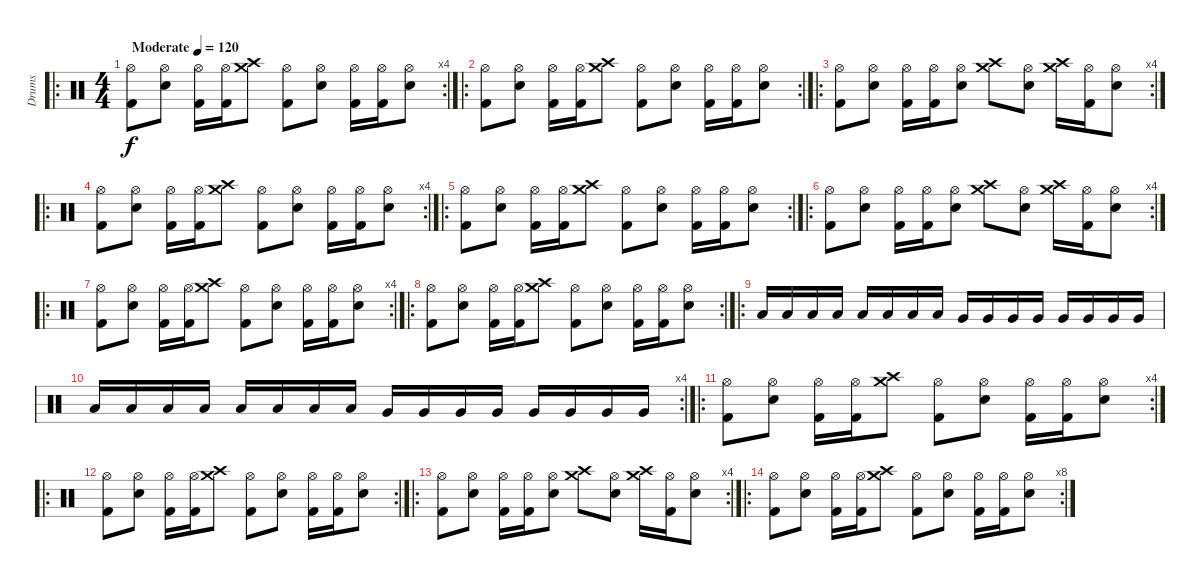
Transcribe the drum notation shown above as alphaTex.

\track ("Drums" "Drums") {instrument percussion}
\staff {score}
\articulation defaults
\ro
\rc 4
\ts (4 4)
\tempo (120 "Moderate")
\clef neutral
\ks c
("Hi-Hat (open)" "Kick (hit) 2").8{dy f} ("Hi-Hat (open)" "Snare (hit) 2").8 ("Hi-Hat (open)" "Kick (hit) 2").16 ("Hi-Hat (open)" "Kick (hit) 2").16 ("Crash medium (hit)" "Crash high (hit)").8 ("Hi-Hat (open)" "Kick (hit) 2").8 ("Hi-Hat (open)" "Snare (hit) 2").8 ("Hi-Hat (open)" "Kick (hit) 2").16 ("Hi-Hat (open)" "Kick (hit) 2").16 ("Hi-Hat (open)" "Snare (hit) 2").8 |
\ro
\rc 2
("Hi-Hat (open)" "Kick (hit) 2").8 ("Hi-Hat (open)" "Snare (hit) 2").8 ("Hi-Hat (open)" "Kick (hit) 2").16 ("Hi-Hat (open)" "Kick (hit) 2").16 ("Crash medium (hit)" "Crash high (hit)").8 ("Hi-Hat (open)" "Kick (hit) 2").8 ("Hi-Hat (open)" "Snare (hit) 2").8 ("Hi-Hat (open)" "Kick (hit) 2").16 ("Hi-Hat (open)" "Kick (hit) 2").16 ("Hi-Hat (open)" "Snare (hit) 2").8 |
\ro
\rc 4
("Hi-Hat (open)" "Kick (hit) 2").8 ("Hi-Hat (open)" "Snare (hit) 2").8 ("Hi-Hat (open)" "Kick (hit) 2").16 ("Hi-Hat (open)" "Kick (hit) 2").16 ("Hi-Hat (open)" "Snare (hit) 2").8 ("Crash medium (hit)" "Crash high (hit)").8 ("Hi-Hat (open)" "Snare (hit) 2").8 ("Crash medium (hit)" "Crash high (hit)").16 ("Hi-Hat (open)" "Kick (hit) 2").16 ("Hi-Hat (open)" "Snare (hit) 2").8 |
\ro
\rc 4
("Hi-Hat (open)" "Kick (hit) 2").8 ("Hi-Hat (open)" "Snare (hit) 2").8 ("Hi-Hat (open)" "Kick (hit) 2").16 ("Hi-Hat (open)" "Kick (hit) 2").16 ("Crash medium (hit)" "Crash high (hit)").8 ("Hi-Hat (open)" "Kick (hit) 2").8 ("Hi-Hat (open)" "Snare (hit) 2").8 ("Hi-Hat (open)" "Kick (hit) 2").16 ("Hi-Hat (open)" "Kick (hit) 2").16 ("Hi-Hat (open)" "Snare (hit) 2").8 |
\ro
\rc 2
("Hi-Hat (open)" "Kick (hit) 2").8 ("Hi-Hat (open)" "Snare (hit) 2").8 ("Hi-Hat (open)" "Kick (hit) 2").16 ("Hi-Hat (open)" "Kick (hit) 2").16 ("Crash medium (hit)" "Crash high (hit)").8 ("Hi-Hat (open)" "Kick (hit) 2").8 ("Hi-Hat (open)" "Snare (hit) 2").8 ("Hi-Hat (open)" "Kick (hit) 2").16 ("Hi-Hat (open)" "Kick (hit) 2").16 ("Hi-Hat (open)" "Snare (hit) 2").8 |
\ro
\rc 4
("Hi-Hat (open)" "Kick (hit) 2").8 ("Hi-Hat (open)" "Snare (hit) 2").8 ("Hi-Hat (open)" "Kick (hit) 2").16 ("Hi-Hat (open)" "Kick (hit) 2").16 ("Hi-Hat (open)" "Snare (hit) 2").8 ("Crash medium (hit)" "Crash high (hit)").8 ("Hi-Hat (open)" "Snare (hit) 2").8 ("Crash medium (hit)" "Crash high (hit)").16 ("Hi-Hat (open)" "Kick (hit) 2").16 ("Hi-Hat (open)" "Snare (hit) 2").8 |
\ro
\rc 4
("Hi-Hat (open)" "Kick (hit) 2").8 ("Hi-Hat (open)" "Snare (hit) 2").8 ("Hi-Hat (open)" "Kick (hit) 2").16 ("Hi-Hat (open)" "Kick (hit) 2").16 ("Crash medium (hit)" "Crash high (hit)").8 ("Hi-Hat (open)" "Kick (hit) 2").8 ("Hi-Hat (open)" "Snare (hit) 2").8 ("Hi-Hat (open)" "Kick (hit) 2").16 ("Hi-Hat (open)" "Kick (hit) 2").16 ("Hi-Hat (open)" "Snare (hit) 2").8 |
\ro
\rc 2
("Hi-Hat (open)" "Kick (hit) 2").8 ("Hi-Hat (open)" "Snare (hit) 2").8 ("Hi-Hat (open)" "Kick (hit) 2").16 ("Hi-Hat (open)" "Kick (hit) 2").16 ("Crash medium (hit)" "Crash high (hit)").8 ("Hi-Hat (open)" "Kick (hit) 2").8 ("Hi-Hat (open)" "Snare (hit) 2").8 ("Hi-Hat (open)" "Kick (hit) 2").16 ("Hi-Hat (open)" "Kick (hit) 2").16 ("Hi-Hat (open)" "Snare (hit) 2").8 |
\ro "Low Floor Tom (hit)".16 "Low Floor Tom (hit)".16 "Low Floor Tom (hit)".16 "Low Floor Tom (hit)".16 "Low Floor Tom (hit)".16 "Low Floor Tom (hit)".16 "Low Floor Tom (hit)".16 "Low Floor Tom (hit)".16 "Very Low Tom (hit)".16 "Very Low Tom (hit)".16 "Very Low Tom (hit)".16 "Very Low Tom (hit)".16 "Very Low Tom (hit)".16 "Very Low Tom (hit)".16 "Very Low Tom (hit)".16 "Very Low Tom (hit)".16
|
\rc 4 "Low Floor Tom (hit)".16 "Low Floor Tom (hit)".16 "Low Floor Tom (hit)".16 "Low Floor Tom (hit)".16 "Low Floor Tom (hit)".16 "Low Floor Tom (hit)".16 "Low Floor Tom (hit)".16 "Low Floor Tom (hit)".16 "Very Low Tom (hit)".16 "Very Low Tom (hit)".16 "Very Low Tom (hit)".16 "Very Low Tom (hit)".16 "Very Low Tom (hit)".16 "Very Low Tom (hit)".16 "Very Low Tom (hit)".16 "Very Low Tom (hit)".16
|
\ro
\rc 4
("Hi-Hat (open)" "Kick (hit) 2").8 ("Hi-Hat (open)" "Snare (hit) 2").8 ("Hi-Hat (open)" "Kick (hit) 2").16 ("Hi-Hat (open)" "Kick (hit) 2").16 ("Crash medium (hit)" "Crash high (hit)").8 ("Hi-Hat (open)" "Kick (hit) 2").8 ("Hi-Hat (open)" "Snare (hit) 2").8 ("Hi-Hat (open)" "Kick (hit) 2").16 ("Hi-Hat (open)" "Kick (hit) 2").16 ("Hi-Hat (open)" "Snare (hit) 2").8 |
\ro
\rc 2
("Hi-Hat (open)" "Kick (hit) 2").8 ("Hi-Hat (open)" "Snare (hit) 2").8 ("Hi-Hat (open)" "Kick (hit) 2").16 ("Hi-Hat (open)" "Kick (hit) 2").16 ("Crash medium (hit)" "Crash high (hit)").8 ("Hi-Hat (open)" "Kick (hit) 2").8 ("Hi-Hat (open)" "Snare (hit) 2").8 ("Hi-Hat (open)" "Kick (hit) 2").16 ("Hi-Hat (open)" "Kick (hit) 2").16 ("Hi-Hat (open)" "Snare (hit) 2").8 |
\ro
\rc 4
("Hi-Hat (open)" "Kick (hit) 2").8 ("Hi-Hat (open)" "Snare (hit) 2").8 ("Hi-Hat (open)" "Kick (hit) 2").16 ("Hi-Hat (open)" "Kick (hit) 2").16 ("Hi-Hat (open)" "Snare (hit) 2").8 ("Crash medium (hit)" "Crash high (hit)").8 ("Hi-Hat (open)" "Snare (hit) 2").8 ("Crash medium (hit)" "Crash high (hit)").16 ("Hi-Hat (open)" "Kick (hit) 2").16 ("Hi-Hat (open)" "Snare (hit) 2").8 |
\ro
\rc 8
("Hi-Hat (open)" "Kick (hit) 2").8 ("Hi-Hat (open)" "Snare (hit) 2").8 ("Hi-Hat (open)" "Kick (hit) 2").16 ("Hi-Hat (open)" "Kick (hit) 2").16 ("Crash medium (hit)" "Crash high (hit)").8 ("Hi-Hat (open)" "Kick (hit) 2").8 ("Hi-Hat (open)" "Snare (hit) 2").8 ("Hi-Hat (open)" "Kick (hit) 2").16 ("Hi-Hat (open)" "Kick (hit) 2").16 ("Hi-Hat (open)" "Snare (hit) 2").8
